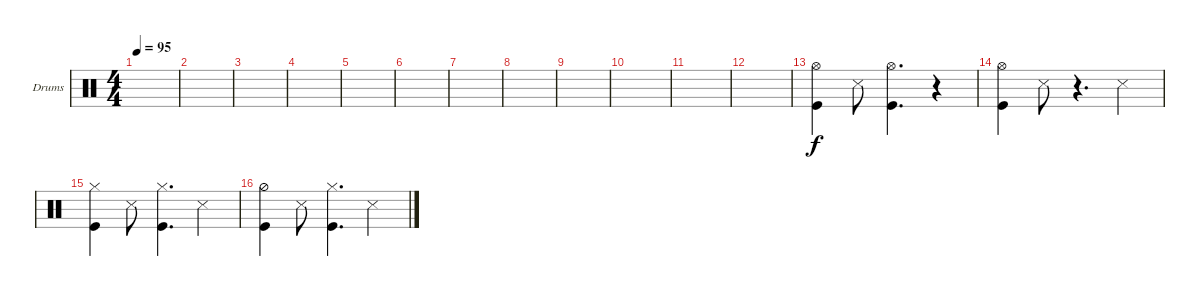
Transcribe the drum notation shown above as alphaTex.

\defaultSystemsLayout 4
\bracketExtendMode groupsimilarinstruments
\firstSystemTrackNameOrientation horizontal
\otherSystemsTrackNameOrientation horizontal
\track ("Drums" "Drums") {instrument percussion}
\staff {score}
\articulation defaults
\ts (4 4)
\tempo 95
\clef neutral
\scale
0.474178
\ks c
|
\scale
0.262911 |
\scale
0.262911 |
\scale
0.333333 |
\scale
0.333333 |
\scale
0.333333 |
\scale
0.333333 |
\scale
0.333333 |
\scale
0.333333 |
\scale
0.333333 |
\scale
0.333333 |
\scale
0.333333 |
\scale
0.333333 ("Kick (hit)" "Hi-Hat (open)").4 "Snare (side stick) 3".8 ("Kick (hit)" "Hi-Hat (open)").4{d} r.4 |
\scale
0.333333 ("Kick (hit)" "Hi-Hat (open)").4 "Snare (side stick) 3".8 r.4{d} "Snare (side stick) 3".4 |
\scale
0.333333 ("Kick (hit)" "Hi-Hat (closed)").4 "Snare (side stick) 3".8 ("Kick (hit)" "Hi-Hat (closed)").4{d} "Snare (side stick) 3".4 |
\scale
0.333333 ("Kick (hit)" "Hi-Hat (half)").4 "Snare (side stick) 3".8 ("Kick (hit)" "Hi-Hat (closed)").4{d} "Snare (side stick) 3".4
